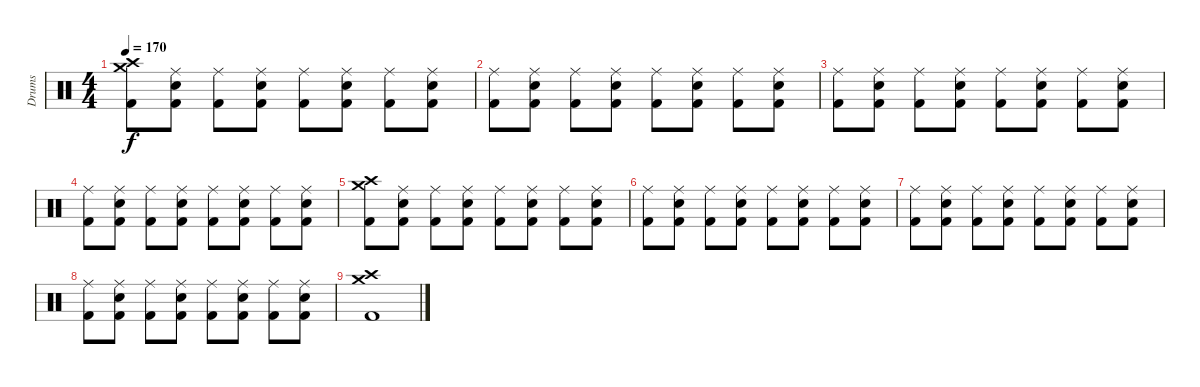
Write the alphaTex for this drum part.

\track ("Drums" "Drums") {instrument percussion}
\staff {score}
\articulation defaults
\ts (4 4)
\tempo 170
\clef neutral
\ks c
("Crash medium (hit)" "Crash high (hit)" "Kick (hit) 2").8{dy f} ("Ride (middle)" "Snare (hit) 2" "Kick (hit) 2").8 ("Ride (middle)" "Kick (hit) 2").8 ("Ride (middle)" "Snare (hit) 2" "Kick (hit) 2").8 ("Ride (middle)" "Kick (hit) 2").8 ("Ride (middle)" "Snare (hit) 2" "Kick (hit) 2").8 ("Ride (middle)" "Kick (hit) 2").8 ("Ride (middle)" "Snare (hit) 2" "Kick (hit) 2").8 |
("Ride (middle)" "Kick (hit) 2").8 ("Ride (middle)" "Snare (hit) 2" "Kick (hit) 2").8 ("Ride (middle)" "Kick (hit) 2").8 ("Ride (middle)" "Snare (hit) 2" "Kick (hit) 2").8 ("Ride (middle)" "Kick (hit) 2").8 ("Ride (middle)" "Snare (hit) 2" "Kick (hit) 2").8 ("Ride (middle)" "Kick (hit) 2").8 ("Ride (middle)" "Snare (hit) 2" "Kick (hit) 2").8 |
("Ride (middle)" "Kick (hit) 2").8 ("Ride (middle)" "Snare (hit) 2" "Kick (hit) 2").8 ("Ride (middle)" "Kick (hit) 2").8 ("Ride (middle)" "Snare (hit) 2" "Kick (hit) 2").8 ("Ride (middle)" "Kick (hit) 2").8 ("Ride (middle)" "Snare (hit) 2" "Kick (hit) 2").8 ("Ride (middle)" "Kick (hit) 2").8 ("Ride (middle)" "Snare (hit) 2" "Kick (hit) 2").8 |
("Ride (middle)" "Kick (hit) 2").8 ("Ride (middle)" "Snare (hit) 2" "Kick (hit) 2").8 ("Ride (middle)" "Kick (hit) 2").8 ("Ride (middle)" "Snare (hit) 2" "Kick (hit) 2").8 ("Ride (middle)" "Kick (hit) 2").8 ("Ride (middle)" "Snare (hit) 2" "Kick (hit) 2").8 ("Ride (middle)" "Kick (hit) 2").8 ("Ride (middle)" "Snare (hit) 2" "Kick (hit) 2").8 |
("Crash medium (hit)" "Crash high (hit)" "Kick (hit) 2").8 ("Ride (middle)" "Snare (hit) 2" "Kick (hit) 2").8 ("Ride (middle)" "Kick (hit) 2").8 ("Ride (middle)" "Snare (hit) 2" "Kick (hit) 2").8 ("Ride (middle)" "Kick (hit) 2").8 ("Ride (middle)" "Snare (hit) 2" "Kick (hit) 2").8 ("Ride (middle)" "Kick (hit) 2").8 ("Ride (middle)" "Snare (hit) 2" "Kick (hit) 2").8 |
("Ride (middle)" "Kick (hit) 2").8 ("Ride (middle)" "Snare (hit) 2" "Kick (hit) 2").8 ("Ride (middle)" "Kick (hit) 2").8 ("Ride (middle)" "Snare (hit) 2" "Kick (hit) 2").8 ("Ride (middle)" "Kick (hit) 2").8 ("Ride (middle)" "Snare (hit) 2" "Kick (hit) 2").8 ("Ride (middle)" "Kick (hit) 2").8 ("Ride (middle)" "Snare (hit) 2" "Kick (hit) 2").8 |
("Ride (middle)" "Kick (hit) 2").8 ("Ride (middle)" "Snare (hit) 2" "Kick (hit) 2").8 ("Ride (middle)" "Kick (hit) 2").8 ("Ride (middle)" "Snare (hit) 2" "Kick (hit) 2").8 ("Ride (middle)" "Kick (hit) 2").8 ("Ride (middle)" "Snare (hit) 2" "Kick (hit) 2").8 ("Ride (middle)" "Kick (hit) 2").8 ("Ride (middle)" "Snare (hit) 2" "Kick (hit) 2").8 |
("Ride (middle)" "Kick (hit) 2").8 ("Ride (middle)" "Snare (hit) 2" "Kick (hit) 2").8 ("Ride (middle)" "Kick (hit) 2").8 ("Ride (middle)" "Snare (hit) 2" "Kick (hit) 2").8 ("Ride (middle)" "Kick (hit) 2").8 ("Ride (middle)" "Snare (hit) 2" "Kick (hit) 2").8 ("Ride (middle)" "Kick (hit) 2").8 ("Ride (middle)" "Snare (hit) 2" "Kick (hit) 2").8 |
("Crash high (hit)" "Crash medium (hit)" "Kick (hit) 2").1
